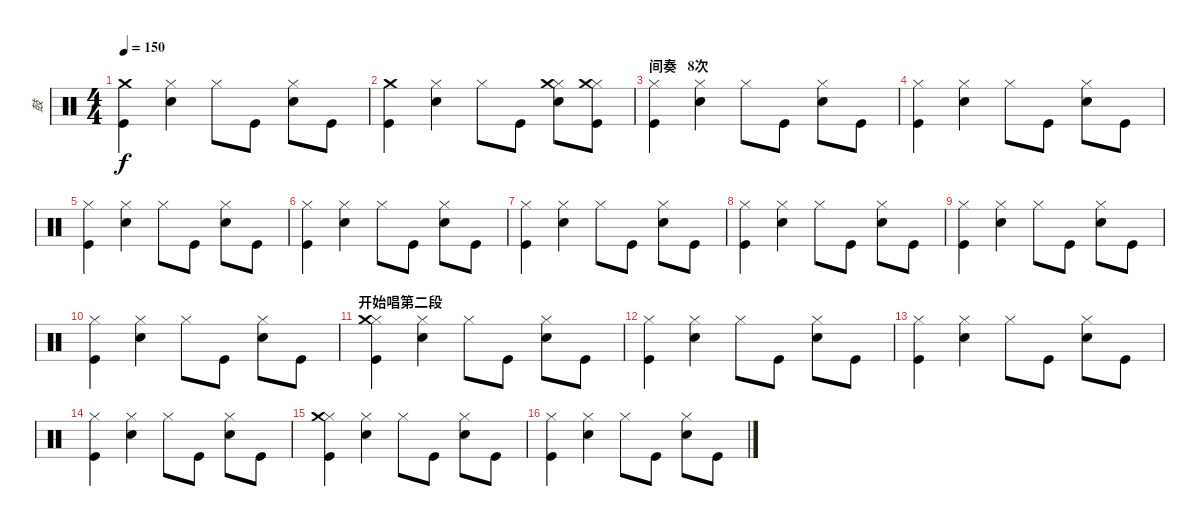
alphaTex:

\track ("鼓" "鼓") {instrument percussion}
\staff {score}
\articulation defaults
\ts (4 4)
\tempo 150
\clef neutral
\ks c
("Kick (hit)" "Crash medium (hit)").4{dy f} ("Snare (hit) 2" "Hi-Hat (closed)").4 "Hi-Hat (closed)".8 "Kick (hit)".8 ("Snare (hit) 2" "Hi-Hat (closed)").8 "Kick (hit)".8 |
("Kick (hit)" "Crash medium (hit)").4 ("Snare (hit) 2" "Hi-Hat (closed)").4 "Hi-Hat (closed)".8 "Kick (hit)".8 ("Snare (hit) 2" "Hi-Hat (closed)" "Crash medium (hit)").8 ("Kick (hit)" "Hi-Hat (closed)" "Crash medium (hit)").8 |
\section ("" "间奏   8次")
("Kick (hit)" "Hi-Hat (closed)").4 ("Snare (hit) 2" "Hi-Hat (closed)").4 "Hi-Hat (closed)".8 "Kick (hit)".8 ("Snare (hit) 2" "Hi-Hat (closed)").8 "Kick (hit)".8 |
("Kick (hit)" "Hi-Hat (closed)").4 ("Snare (hit) 2" "Hi-Hat (closed)").4 "Hi-Hat (closed)".8 "Kick (hit)".8 ("Snare (hit) 2" "Hi-Hat (closed)").8 "Kick (hit)".8 |
("Kick (hit)" "Hi-Hat (closed)").4 ("Snare (hit) 2" "Hi-Hat (closed)").4 "Hi-Hat (closed)".8 "Kick (hit)".8 ("Snare (hit) 2" "Hi-Hat (closed)").8 "Kick (hit)".8 |
("Kick (hit)" "Hi-Hat (closed)").4 ("Snare (hit) 2" "Hi-Hat (closed)").4 "Hi-Hat (closed)".8 "Kick (hit)".8 ("Snare (hit) 2" "Hi-Hat (closed)").8 "Kick (hit)".8 |
("Kick (hit)" "Hi-Hat (closed)").4 ("Snare (hit) 2" "Hi-Hat (closed)").4 "Hi-Hat (closed)".8 "Kick (hit)".8 ("Snare (hit) 2" "Hi-Hat (closed)").8 "Kick (hit)".8 |
("Kick (hit)" "Hi-Hat (closed)").4 ("Snare (hit) 2" "Hi-Hat (closed)").4 "Hi-Hat (closed)".8 "Kick (hit)".8 ("Snare (hit) 2" "Hi-Hat (closed)").8 "Kick (hit)".8 |
("Kick (hit)" "Hi-Hat (closed)").4 ("Snare (hit) 2" "Hi-Hat (closed)").4 "Hi-Hat (closed)".8 "Kick (hit)".8 ("Snare (hit) 2" "Hi-Hat (closed)").8 "Kick (hit)".8 |
("Kick (hit)" "Hi-Hat (closed)").4 ("Snare (hit) 2" "Hi-Hat (closed)").4 "Hi-Hat (closed)".8 "Kick (hit)".8 ("Snare (hit) 2" "Hi-Hat (closed)").8 "Kick (hit)".8 |
\section ("" "开始唱第二段")
("Kick (hit)" "Hi-Hat (closed)" "Crash medium (hit)").4 ("Snare (hit) 2" "Hi-Hat (closed)").4 "Hi-Hat (closed)".8 "Kick (hit)".8 ("Snare (hit) 2" "Hi-Hat (closed)").8 "Kick (hit)".8 |
("Kick (hit)" "Hi-Hat (closed)").4 ("Snare (hit) 2" "Hi-Hat (closed)").4 "Hi-Hat (closed)".8 "Kick (hit)".8 ("Snare (hit) 2" "Hi-Hat (closed)").8 "Kick (hit)".8 |
("Kick (hit)" "Hi-Hat (closed)").4 ("Snare (hit) 2" "Hi-Hat (closed)").4 "Hi-Hat (closed)".8 "Kick (hit)".8 ("Snare (hit) 2" "Hi-Hat (closed)").8 "Kick (hit)".8 |
("Kick (hit)" "Hi-Hat (closed)").4 ("Snare (hit) 2" "Hi-Hat (closed)").4 "Hi-Hat (closed)".8 "Kick (hit)".8 ("Snare (hit) 2" "Hi-Hat (closed)").8 "Kick (hit)".8 |
("Kick (hit)" "Hi-Hat (closed)" "Crash medium (hit)").4 ("Snare (hit) 2" "Hi-Hat (closed)").4 "Hi-Hat (closed)".8 "Kick (hit)".8 ("Snare (hit) 2" "Hi-Hat (closed)").8 "Kick (hit)".8 |
("Kick (hit)" "Hi-Hat (closed)").4 ("Snare (hit) 2" "Hi-Hat (closed)").4 "Hi-Hat (closed)".8 "Kick (hit)".8 ("Snare (hit) 2" "Hi-Hat (closed)").8 "Kick (hit)".8
